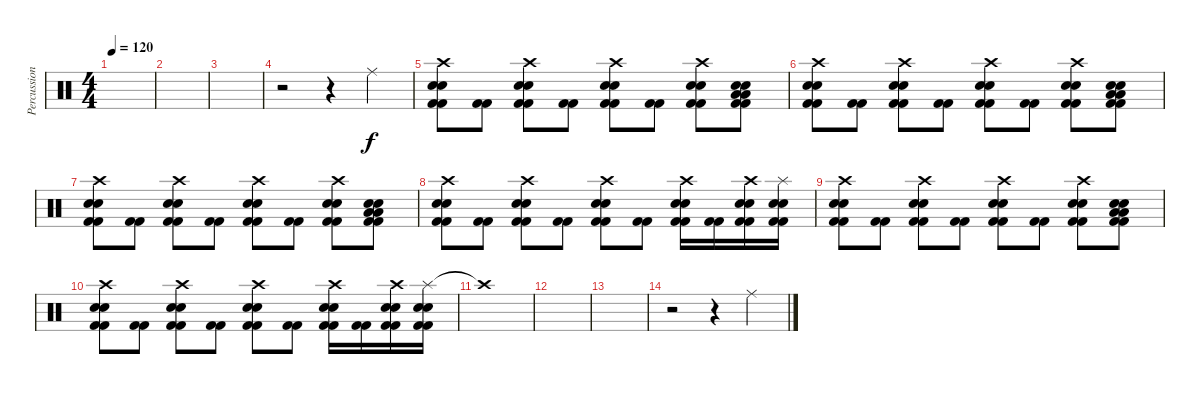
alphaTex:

\track ("Percussions" "Percussion") {instrument percussion}
\staff {score}
\articulation defaults
\ts (4 4)
\tempo 120
\clef neutral
\ks c
|
|
|
r.2 r.4 "Ride (middle)".4 |
("Crash high (hit)" "Electric Snare (hit)" "Electric Snare (hit)" "Kick (hit) 2" "Kick (hit) 2").8 ("Kick (hit) 2" "Kick (hit) 2").8 ("Crash high (hit)" "Electric Snare (hit)" "Electric Snare (hit)" "Kick (hit) 2" "Kick (hit) 2").8 ("Kick (hit) 2" "Kick (hit) 2").8 ("Crash high (hit)" "Electric Snare (hit)" "Electric Snare (hit)" "Kick (hit) 2" "Kick (hit) 2").8 ("Kick (hit) 2" "Kick (hit) 2").8 ("Crash high (hit)" "Electric Snare (hit)" "Electric Snare (hit)" "Kick (hit) 2" "Kick (hit) 2").8 ("Low Floor Tom (hit)" "Low Floor Tom (hit)" "Electric Snare (hit)" "Electric Snare (hit)" "Kick (hit) 2" "Kick (hit) 2").8 |
("Crash high (hit)" "Electric Snare (hit)" "Electric Snare (hit)" "Kick (hit) 2" "Kick (hit) 2").8 ("Kick (hit) 2" "Kick (hit) 2").8 ("Crash high (hit)" "Electric Snare (hit)" "Electric Snare (hit)" "Kick (hit) 2" "Kick (hit) 2").8 ("Kick (hit) 2" "Kick (hit) 2").8 ("Crash high (hit)" "Electric Snare (hit)" "Electric Snare (hit)" "Kick (hit) 2" "Kick (hit) 2").8 ("Kick (hit) 2" "Kick (hit) 2").8 ("Crash high (hit)" "Electric Snare (hit)" "Electric Snare (hit)" "Kick (hit) 2" "Kick (hit) 2").8 ("Low Floor Tom (hit)" "Low Floor Tom (hit)" "Electric Snare (hit)" "Electric Snare (hit)" "Kick (hit) 2" "Kick (hit) 2").8 |
("Crash high (hit)" "Electric Snare (hit)" "Electric Snare (hit)" "Kick (hit) 2" "Kick (hit) 2").8 ("Kick (hit) 2" "Kick (hit) 2").8 ("Crash high (hit)" "Electric Snare (hit)" "Electric Snare (hit)" "Kick (hit) 2" "Kick (hit) 2").8 ("Kick (hit) 2" "Kick (hit) 2").8 ("Crash high (hit)" "Electric Snare (hit)" "Electric Snare (hit)" "Kick (hit) 2" "Kick (hit) 2").8 ("Kick (hit) 2" "Kick (hit) 2").8 ("Crash high (hit)" "Electric Snare (hit)" "Electric Snare (hit)" "Kick (hit) 2" "Kick (hit) 2").8 ("Low Floor Tom (hit)" "Low Floor Tom (hit)" "Electric Snare (hit)" "Electric Snare (hit)" "Kick (hit) 2" "Kick (hit) 2").8 |
("Crash high (hit)" "Electric Snare (hit)" "Electric Snare (hit)" "Kick (hit) 2" "Kick (hit) 2").8 ("Kick (hit) 2" "Kick (hit) 2").8 ("Crash high (hit)" "Electric Snare (hit)" "Electric Snare (hit)" "Kick (hit) 2" "Kick (hit) 2").8 ("Kick (hit) 2" "Kick (hit) 2").8 ("Crash high (hit)" "Electric Snare (hit)" "Electric Snare (hit)" "Kick (hit) 2" "Kick (hit) 2").8 ("Kick (hit) 2" "Kick (hit) 2").8 ("Crash high (hit)" "Electric Snare (hit)" "Electric Snare (hit)" "Kick (hit) 2" "Kick (hit) 2").16 ("Kick (hit) 2" "Kick (hit) 2").16 ("Crash high (hit)" "Electric Snare (hit)" "Electric Snare (hit)" "Kick (hit) 2" "Kick (hit) 2").16 ("Splash (hit)" "Electric Snare (hit)" "Electric Snare (hit)" "Kick (hit) 2" "Kick (hit) 2").16 |
("Crash high (hit)" "Electric Snare (hit)" "Electric Snare (hit)" "Kick (hit) 2" "Kick (hit) 2").8 ("Kick (hit) 2" "Kick (hit) 2").8 ("Crash high (hit)" "Electric Snare (hit)" "Electric Snare (hit)" "Kick (hit) 2" "Kick (hit) 2").8 ("Kick (hit) 2" "Kick (hit) 2").8 ("Crash high (hit)" "Electric Snare (hit)" "Electric Snare (hit)" "Kick (hit) 2" "Kick (hit) 2").8 ("Kick (hit) 2" "Kick (hit) 2").8 ("Crash high (hit)" "Electric Snare (hit)" "Electric Snare (hit)" "Kick (hit) 2" "Kick (hit) 2").8 ("Low Floor Tom (hit)" "Low Floor Tom (hit)" "Electric Snare (hit)" "Electric Snare (hit)" "Kick (hit) 2" "Kick (hit) 2").8 |
("Crash high (hit)" "Electric Snare (hit)" "Electric Snare (hit)" "Kick (hit) 2" "Kick (hit) 2").8 ("Kick (hit) 2" "Kick (hit) 2").8 ("Crash high (hit)" "Electric Snare (hit)" "Electric Snare (hit)" "Kick (hit) 2" "Kick (hit) 2").8 ("Kick (hit) 2" "Kick (hit) 2").8 ("Crash high (hit)" "Electric Snare (hit)" "Electric Snare (hit)" "Kick (hit) 2" "Kick (hit) 2").8 ("Kick (hit) 2" "Kick (hit) 2").8 ("Crash high (hit)" "Electric Snare (hit)" "Electric Snare (hit)" "Kick (hit) 2" "Kick (hit) 2").16 ("Kick (hit) 2" "Kick (hit) 2").16 ("Crash high (hit)" "Electric Snare (hit)" "Electric Snare (hit)" "Kick (hit) 2" "Kick (hit) 2").16 ("Splash (hit)" "Electric Snare (hit)" "Electric Snare (hit)" "Kick (hit) 2" "Kick (hit) 2").16 |
"Crash high (hit)"{t}.1 |
|
|
r.2 r.4 "Ride (middle)".4
